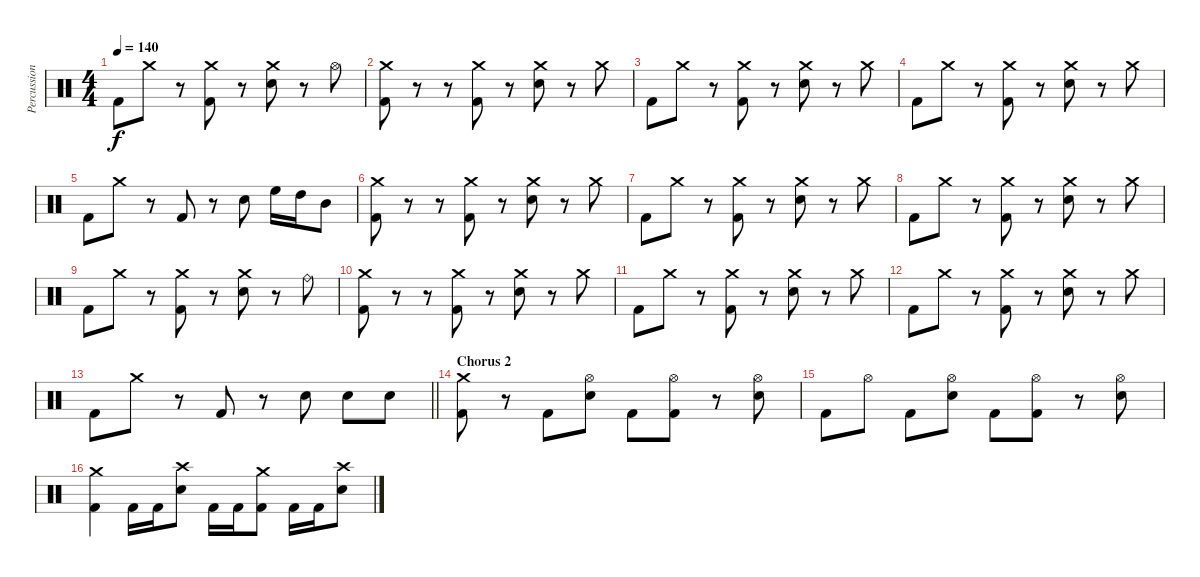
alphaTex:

\track ("Percussion" "Percussion") {instrument percussion}
\staff {score}
\articulation defaults
\ts (4 4)
\tempo 140
\clef neutral
\ks c "Kick (hit) 2".8{dy f} "Crash medium (hit)".8
r.8 ("Crash medium (hit)" "Kick (hit) 2").8 r.8 ("Crash medium (hit)" "Electric Snare (hit)").8 r.8 "Hi-Hat (open)".8 |
("Crash medium (hit)" "Kick (hit) 2").8 r.8 r.8 ("Crash medium (hit)" "Kick (hit) 2").8 r.8 ("Crash medium (hit)" "Electric Snare (hit)").8 r.8 "Crash medium (hit)".8 |
"Kick (hit) 2".8 "Crash medium (hit)".8 r.8 ("Crash medium (hit)" "Kick (hit) 2").8 r.8 ("Crash medium (hit)" "Electric Snare (hit)").8 r.8 "Crash medium (hit)".8 |
"Kick (hit) 2".8 "Crash medium (hit)".8 r.8 ("Crash medium (hit)" "Kick (hit) 2").8 r.8 ("Crash medium (hit)" "Electric Snare (hit)").8 r.8 "Crash medium (hit)".8 |
"Kick (hit) 2".8 "Crash medium (hit)".8 r.8 "Kick (hit) 2".8 r.8 "Electric Snare (hit)".8 "High Floor Tom (hit)".16 "High Tom (hit)".16 "Mid Tom (hit)".8 |
("Crash medium (hit)" "Kick (hit) 2").8{volume 16} r.8 r.8 ("Crash medium (hit)" "Kick (hit) 2").8 r.8 ("Crash medium (hit)" "Electric Snare (hit)").8 r.8 "Crash medium (hit)".8 |
"Kick (hit) 2".8 "Crash medium (hit)".8 r.8 ("Crash medium (hit)" "Kick (hit) 2").8 r.8 ("Crash medium (hit)" "Electric Snare (hit)").8 r.8 "Crash medium (hit)".8 |
"Kick (hit) 2".8 "Crash medium (hit)".8 r.8 ("Crash medium (hit)" "Kick (hit) 2").8 r.8 ("Crash medium (hit)" "Electric Snare (hit)").8 r.8 "Crash medium (hit)".8 |
"Kick (hit) 2".8 "Crash medium (hit)".8 r.8 ("Crash medium (hit)" "Kick (hit) 2").8 r.8 ("Crash medium (hit)" "Electric Snare (hit)").8 r.8 "Ride (bell)".8 |
("Crash medium (hit)" "Kick (hit) 2").8 r.8 r.8 ("Crash medium (hit)" "Kick (hit) 2").8 r.8 ("Crash medium (hit)" "Electric Snare (hit)").8 r.8 "Crash medium (hit)".8 |
"Kick (hit) 2".8 "Crash medium (hit)".8 r.8 ("Crash medium (hit)" "Kick (hit) 2").8 r.8 ("Crash medium (hit)" "Electric Snare (hit)").8 r.8 "Crash medium (hit)".8 |
"Kick (hit) 2".8 "Crash medium (hit)".8 r.8 ("Crash medium (hit)" "Kick (hit) 2").8 r.8 ("Crash medium (hit)" "Electric Snare (hit)").8 r.8 "Crash medium (hit)".8 |
\barLineRight lightlight "Kick (hit) 2".8 "Crash medium (hit)".8
r.8 "Kick (hit) 2".8 r.8 "Electric Snare (hit)".8 "Electric Snare (hit)".8 "Electric Snare (hit)".8 |
\section ("" "Chorus 2")
("Crash medium (hit)" "Kick (hit) 2").8 r.8 "Kick (hit) 2".8 ("Hi-Hat (open)" "Electric Snare (hit)").8 "Kick (hit) 2".8 ("Hi-Hat (open)" "Kick (hit) 2").8 r.8 ("Hi-Hat (open)" "Electric Snare (hit)").8 |
"Kick (hit) 2".8 "Hi-Hat (open)".8 "Kick (hit) 2".8 ("Hi-Hat (open)" "Electric Snare (hit)").8 "Kick (hit) 2".8 ("Hi-Hat (open)" "Kick (hit) 2").8 r.8 ("Hi-Hat (open)" "Electric Snare (hit)").8 |
("Crash medium (hit)" "Kick (hit) 2").4 "Kick (hit) 2".16 "Kick (hit) 2".16 ("Crash high (hit)" "Electric Snare (hit)").8 "Kick (hit) 2".16 "Kick (hit) 2".16 ("Crash medium (hit)" "Kick (hit) 2").8 "Kick (hit) 2".16 "Kick (hit) 2".16 ("Crash high (hit)" "Electric Snare (hit)").8
